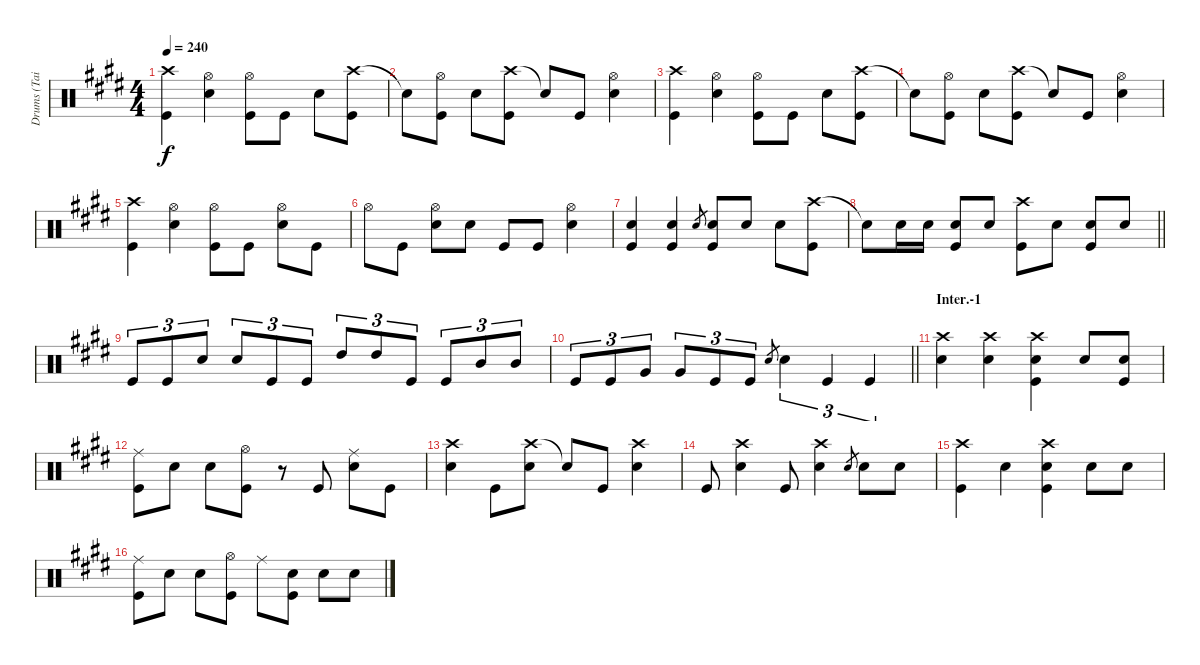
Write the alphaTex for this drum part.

\track ("Drums (Tainaka Ritsu)" "Drums (Tai") {instrument percussion}
\staff {score}
\articulation defaults
\ts (4 4)
\tempo 240
\clef neutral
\ks e
("Crash high (hit)" "Kick (hit)").4{dy f} ("Hi-Hat (open)" "Snare (hit) 2").4 ("Hi-Hat (open)" "Kick (hit)").8 "Kick (hit)".8 "Snare (hit) 2".8 ("Crash high (hit)" "Kick (hit)").8 |
"Snare (hit)"{t}.8 ("Hi-Hat (open)" "Kick (hit)").8 "Snare (hit) 2".8 ("Crash high (hit)" "Kick (hit)").8 "Snare (hit)"{t}.8 "Kick (hit)".8 ("Hi-Hat (open)" "Snare (hit) 2").4 |
("Crash high (hit)" "Kick (hit)").4 ("Hi-Hat (open)" "Snare (hit) 2").4 ("Hi-Hat (open)" "Kick (hit)").8 "Kick (hit)".8 "Snare (hit) 2".8 ("Crash high (hit)" "Kick (hit)").8 |
"Snare (hit)"{t}.8 ("Hi-Hat (open)" "Kick (hit)").8 "Snare (hit) 2".8 ("Crash high (hit)" "Kick (hit)").8 "Snare (hit)"{t}.8 "Kick (hit)".8 ("Hi-Hat (open)" "Snare (hit) 2").4 |
("Crash high (hit)" "Kick (hit)").4 ("Hi-Hat (open)" "Snare (hit) 2").4 ("Hi-Hat (open)" "Kick (hit)").8 "Kick (hit)".8 ("Hi-Hat (open)" "Snare (hit) 2").8 "Kick (hit)".8 |
"Hi-Hat (open)".8 "Kick (hit)".8 ("Hi-Hat (open)" "Snare (hit) 2").8 "Snare (hit) 2".8 "Kick (hit)".8 "Kick (hit)".8 ("Hi-Hat (open)" "Snare (hit) 2").4 |
("Snare (hit) 2" "Kick (hit)").4 ("Snare (hit) 2" "Kick (hit)").4 "Snare (hit) 2".8{gr} ("Snare (hit) 2" "Kick (hit)").8 "Snare (hit) 2".8 "Snare (hit) 2".8 ("Crash high (hit)" "Kick (hit)").8 |
\barLineRight lightlight "Snare (hit)"{t}.8 "Snare (hit) 2".16 "Snare (hit) 2".16
("Snare (hit) 2" "Kick (hit)").8 "Snare (hit) 2".8 ("Crash high (hit)" "Kick (hit)").8 "Snare (hit) 2".8 ("Snare (hit) 2" "Kick (hit)").8 "Snare (hit) 2".8 |
"Kick (hit)".8{tu (3 2)} "Kick (hit)".8{tu (3 2)} "Snare (hit) 2".8{tu (3 2)} "Snare (hit) 2".8{tu (3 2)} "Kick (hit)".8{tu (3 2)} "Kick (hit)".8{tu (3 2)} "High Tom (hit)".8{tu (3 2)} "High Tom (hit)".8{tu (3 2)} "Kick (hit)".8{tu (3 2)} "Kick (hit)".8{tu (3 2)} "Mid Tom (hit)".8{tu (3 2)} "Mid Tom (hit)".8{tu (3 2)} |
\barLineRight lightlight "Kick (hit)".8{tu (3 2)} "Kick (hit)".8{tu (3 2)} "Very Low Tom (hit)".8{tu (3 2)} "Very Low Tom (hit)".8{tu (3 2)} "Kick (hit)".8{tu (3 2)} "Kick (hit)".8{tu (3 2)} "Snare (hit) 2".8{gr} "Snare (hit) 2".4{tu (3 2)} "Kick (hit)".4{tu (3 2)} "Kick (hit)".4{tu (3 2)}
|
\section ("" "Inter.-1")
("Crash high (hit)" "Snare (hit) 2").4 ("Crash high (hit)" "Snare (hit) 2").4 ("Crash high (hit)" "Snare (hit) 2" "Kick (hit)").4 "Snare (hit) 2".8 ("Snare (hit) 2" "Kick (hit)").8 |
("Ride (middle)" "Kick (hit)").8 "Snare (hit) 2".8 "Snare (hit) 2".8 ("Hi-Hat (open)" "Kick (hit)").8 r.8 "Kick (hit)".8 ("Ride (middle)" "Snare (hit) 2").8 "Kick (hit)".8 |
("Crash high (hit)" "Snare (hit) 2").4 "Kick (hit)".8 ("Crash high (hit)" "Snare (hit) 2").8 "Snare (hit)"{t}.8 "Kick (hit)".8 ("Crash high (hit)" "Snare (hit) 2").4 |
"Kick (hit)".8 ("Crash high (hit)" "Snare (hit) 2").4 "Kick (hit)".8 ("Crash high (hit)" "Snare (hit) 2").4 "Snare (hit) 2".8{gr} "Snare (hit) 2".8 "Snare (hit) 2".8 |
("Crash high (hit)" "Kick (hit)").4 "Snare (hit) 2".4 ("Crash high (hit)" "Snare (hit) 2" "Kick (hit)").4 "Snare (hit) 2".8 "Snare (hit) 2".8 |
("Ride (middle)" "Kick (hit)").8 "Snare (hit) 2".8 "Snare (hit) 2".8 ("Hi-Hat (open)" "Kick (hit)").8 "Ride (middle)".8 ("Snare (hit) 2" "Kick (hit)").8 "Snare (hit) 2".8 "Snare (hit) 2".8
